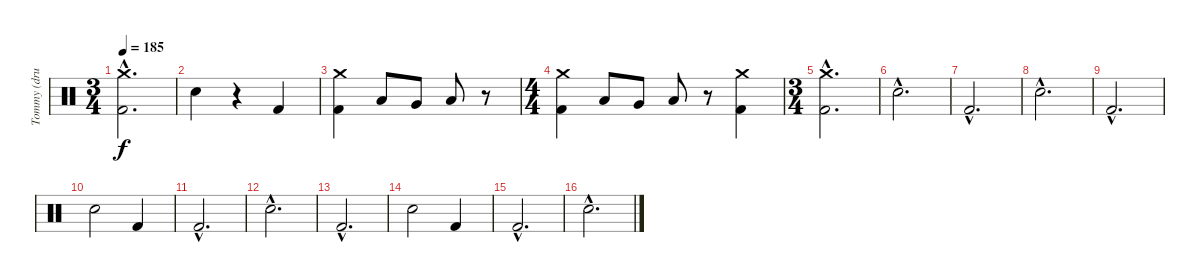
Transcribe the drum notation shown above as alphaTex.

\track ("Tommy (drums)" "Tommy (dru") {instrument percussion}
\staff {score}
\articulation defaults
\ts (3 4)
\tempo 185
\clef neutral
\ks c
("Crash medium (hit)"{hac} "Kick (hit) 2"{hac}).2{d dy f} |
"Electric Snare (hit)".4 r.4 "Kick (hit) 2".4 |
("Crash medium (hit)" "Kick (hit) 2").4 "Low Tom (hit)".8 "Very Low Tom (hit)".8 "Low Floor Tom (hit)".8 r.8 |
\ts (4 4)
("Crash medium (hit)" "Kick (hit) 2").4 "Low Tom (hit)".8 "Very Low Tom (hit)".8 "Low Floor Tom (hit)".8 r.8 ("Crash medium (hit)" "Kick (hit) 2").4 |
\ts (3 4)
("Crash medium (hit)"{hac} "Kick (hit) 2"{hac}).2{d} |
"Electric Snare (hit)"{hac}.2{d} |
"Kick (hit) 2"{hac}.2{d} |
"Electric Snare (hit)"{hac}.2{d} |
"Kick (hit) 2"{hac}.2{d} |
"Electric Snare (hit)".2 "Kick (hit) 2".4 |
"Kick (hit) 2"{hac}.2{d} |
"Electric Snare (hit)"{hac}.2{d} |
"Kick (hit) 2"{hac}.2{d} |
"Electric Snare (hit)".2 "Kick (hit) 2".4 |
"Kick (hit) 2"{hac}.2{d} |
"Electric Snare (hit)"{hac}.2{d}
